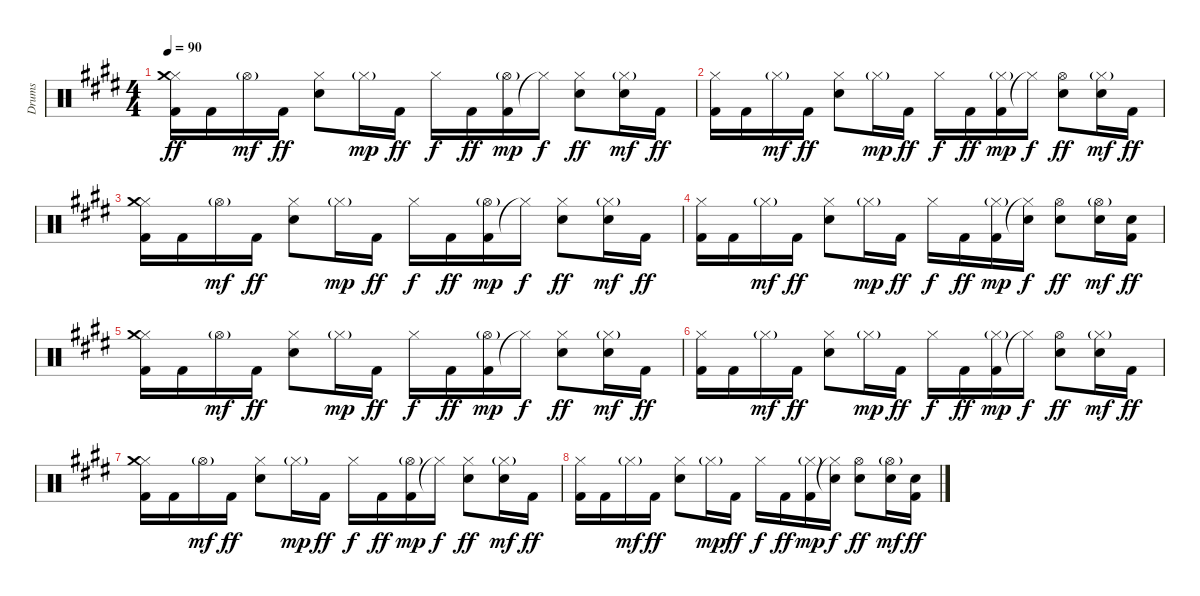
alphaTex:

\track ("Drums" "Drums") {instrument percussion}
\staff {score}
\articulation defaults
\ts (4 4)
\tempo 90
\clef neutral
\ks e
("Kick (hit) 2" "Hi-Hat (closed)" "Crash medium (hit)").16{dy ff} "Kick (hit) 2".16 "Hi-Hat (open)"{g}.16{dy mf} "Kick (hit) 2".16{dy ff} ("Snare (hit) 2" "Hi-Hat (closed)").8 "Hi-Hat (closed)"{g}.16{dy mp} "Kick (hit) 2".16{dy ff} "Hi-Hat (closed)".16{dy f} "Kick (hit) 2".16{dy ff} ("Kick (hit) 2" "Hi-Hat (open)"{g}).16{dy mp} "Hi-Hat (closed)"{t}.16{dy f} ("Snare (hit) 2" "Hi-Hat (closed)").8{dy ff} ("Snare (hit) 2" "Hi-Hat (closed)"{g}).16{dy mf} "Kick (hit) 2".16{dy ff} |
("Kick (hit) 2" "Hi-Hat (closed)").16 "Kick (hit) 2".16 "Hi-Hat (closed)"{g}.16{dy mf} "Kick (hit) 2".16{dy ff} ("Snare (hit) 2" "Hi-Hat (closed)").8 "Hi-Hat (closed)"{g}.16{dy mp} "Kick (hit) 2".16{dy ff} "Hi-Hat (closed)".16{dy f} "Kick (hit) 2".16{dy ff} ("Kick (hit) 2" "Hi-Hat (closed)"{g}).16{dy mp} "Hi-Hat (closed)"{t}.16{dy f} ("Snare (hit) 2" "Hi-Hat (open)").8{dy ff} ("Snare (hit) 2" "Hi-Hat (closed)"{g}).16{dy mf} "Kick (hit) 2".16{dy ff} |
("Kick (hit) 2" "Hi-Hat (closed)" "Crash medium (hit)").16 "Kick (hit) 2".16 "Hi-Hat (open)"{g}.16{dy mf} "Kick (hit) 2".16{dy ff} ("Snare (hit) 2" "Hi-Hat (closed)").8 "Hi-Hat (closed)"{g}.16{dy mp} "Kick (hit) 2".16{dy ff} "Hi-Hat (closed)".16{dy f} "Kick (hit) 2".16{dy ff} ("Kick (hit) 2" "Hi-Hat (open)"{g}).16{dy mp} "Hi-Hat (closed)"{t}.16{dy f} ("Snare (hit) 2" "Hi-Hat (closed)").8{dy ff} ("Snare (hit) 2" "Hi-Hat (closed)"{g}).16{dy mf} "Kick (hit) 2".16{dy ff} |
("Kick (hit) 2" "Hi-Hat (closed)").16 "Kick (hit) 2".16 "Hi-Hat (closed)"{g}.16{dy mf} "Kick (hit) 2".16{dy ff} ("Snare (hit) 2" "Hi-Hat (closed)").8 "Hi-Hat (closed)"{g}.16{dy mp} "Kick (hit) 2".16{dy ff} "Hi-Hat (closed)".16{dy f} "Kick (hit) 2".16{dy ff} ("Kick (hit) 2" "Hi-Hat (closed)"{g}).16{dy mp} ("Hi-Hat (closed)"{t} "Snare (hit) 2").16{dy f} ("Snare (hit) 2" "Hi-Hat (open)").8{dy ff} ("Snare (hit) 2" "Hi-Hat (open)"{g}).16{dy mf} ("Kick (hit) 2" "Snare (hit) 2").16{dy ff} |
("Kick (hit) 2" "Hi-Hat (closed)" "Crash medium (hit)").16 "Kick (hit) 2".16 "Hi-Hat (open)"{g}.16{dy mf} "Kick (hit) 2".16{dy ff} ("Snare (hit) 2" "Hi-Hat (closed)").8 "Hi-Hat (closed)"{g}.16{dy mp} "Kick (hit) 2".16{dy ff} "Hi-Hat (closed)".16{dy f} "Kick (hit) 2".16{dy ff} ("Kick (hit) 2" "Hi-Hat (open)"{g}).16{dy mp} "Hi-Hat (closed)"{t}.16{dy f} ("Snare (hit) 2" "Hi-Hat (closed)").8{dy ff} ("Snare (hit) 2" "Hi-Hat (closed)"{g}).16{dy mf} "Kick (hit) 2".16{dy ff} |
("Kick (hit) 2" "Hi-Hat (closed)").16 "Kick (hit) 2".16 "Hi-Hat (closed)"{g}.16{dy mf} "Kick (hit) 2".16{dy ff} ("Snare (hit) 2" "Hi-Hat (closed)").8 "Hi-Hat (closed)"{g}.16{dy mp} "Kick (hit) 2".16{dy ff} "Hi-Hat (closed)".16{dy f} "Kick (hit) 2".16{dy ff} ("Kick (hit) 2" "Hi-Hat (closed)"{g}).16{dy mp} "Hi-Hat (closed)"{t}.16{dy f} ("Snare (hit) 2" "Hi-Hat (open)").8{dy ff} ("Snare (hit) 2" "Hi-Hat (closed)"{g}).16{dy mf} "Kick (hit) 2".16{dy ff} |
("Kick (hit) 2" "Hi-Hat (closed)" "Crash medium (hit)").16 "Kick (hit) 2".16 "Hi-Hat (open)"{g}.16{dy mf} "Kick (hit) 2".16{dy ff} ("Snare (hit) 2" "Hi-Hat (closed)").8 "Hi-Hat (closed)"{g}.16{dy mp} "Kick (hit) 2".16{dy ff} "Hi-Hat (closed)".16{dy f} "Kick (hit) 2".16{dy ff} ("Kick (hit) 2" "Hi-Hat (open)"{g}).16{dy mp} "Hi-Hat (closed)"{t}.16{dy f} ("Snare (hit) 2" "Hi-Hat (closed)").8{dy ff} ("Snare (hit) 2" "Hi-Hat (closed)"{g}).16{dy mf} "Kick (hit) 2".16{dy ff} |
("Kick (hit) 2" "Hi-Hat (closed)").16 "Kick (hit) 2".16 "Hi-Hat (closed)"{g}.16{dy mf} "Kick (hit) 2".16{dy ff} ("Snare (hit) 2" "Hi-Hat (closed)").8 "Hi-Hat (closed)"{g}.16{dy mp} "Kick (hit) 2".16{dy ff} "Hi-Hat (closed)".16{dy f} "Kick (hit) 2".16{dy ff} ("Kick (hit) 2" "Hi-Hat (closed)"{g}).16{dy mp} ("Hi-Hat (closed)"{t} "Snare (hit) 2").16{dy f} ("Snare (hit) 2" "Hi-Hat (open)").8{dy ff} ("Snare (hit) 2" "Hi-Hat (open)"{g}).16{dy mf} ("Kick (hit) 2" "Snare (hit) 2").16{dy ff}
